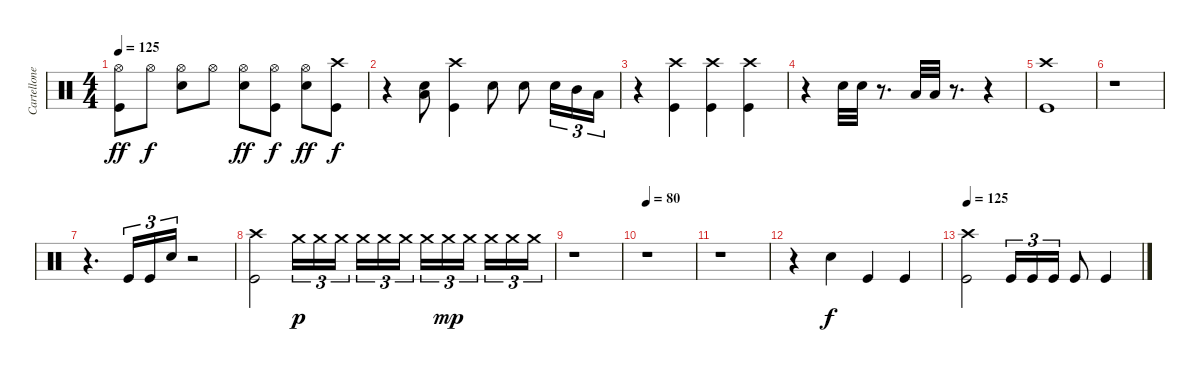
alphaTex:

\track ("Cartellone" "Cartellone") {instrument percussion}
\staff {score}
\articulation defaults
\ts (4 4)
\tempo 125
\clef neutral
\ks c
("Hi-Hat (open)" "Kick (hit)").8{dy ff} "Hi-Hat (open)".8{dy f} ("Hi-Hat (open)" "Snare (hit) 2").8 "Hi-Hat (open)".8 ("Hi-Hat (open)" "Snare (hit) 2").8{dy ff} ("Hi-Hat (open)" "Kick (hit)").8{dy f} ("Hi-Hat (open)" "Snare (hit) 2").8{dy ff} ("Crash high (hit)" "Kick (hit)").8{dy f} |
r.4 ("Snare (hit) 2" "Low Tom (hit)").8 ("Crash high (hit)" "Kick (hit)").4 "Snare (hit) 2".8 "Snare (hit) 2".8 "Snare (hit) 2".16{tu (3 2)} "Mid Tom (hit)".16{tu (3 2)} "Low Tom (hit)".16{tu (3 2)} |
r.4 ("Crash high (hit)" "Kick (hit)").4 ("Crash high (hit)" "Kick (hit)").4 ("Crash high (hit)" "Kick (hit)").4 |
r.4 "Snare (hit) 2".32 "Snare (hit) 2".32 r.8{d} "Low Tom (hit)".32 "Low Tom (hit)".32 r.8{d} r.4 |
("Crash high (hit)" "Kick (hit)").1 |
r.1 |
r.4{d} "Kick (hit)".16{tu (3 2)} "Kick (hit)".16{tu (3 2)} "Snare (hit) 2".16{tu (3 2)} r.2 |
("Crash high (hit)" "Kick (hit)").2 "Crash medium (hit)".16{tu (3 2) dy p} "Crash medium (hit)".16{tu (3 2)} "Crash medium (hit)".16{tu (3 2)} "Crash medium (hit)".16{tu (3 2)} "Crash medium (hit)".16{tu (3 2)} "Crash medium (hit)".16{tu (3 2)} "Crash medium (hit)".16{tu (3 2)} "Crash medium (hit)".16{tu (3 2) dy mp} "Crash medium (hit)".16{tu (3 2)} "Crash medium (hit)".16{tu (3 2)} "Crash medium (hit)".16{tu (3 2)} "Crash medium (hit)".16{tu (3 2)} |
r.1 |
\tempo 80
r.1 |
r.1 |
r.4 "Snare (hit) 2".4{dy f} "Kick (hit)".4 "Kick (hit)".4 |
\tempo 125
("Crash high (hit)" "Kick (hit)").2 "Kick (hit)".16{tu (3 2)} "Kick (hit)".16{tu (3 2)} "Kick (hit)".16{tu (3 2)} "Kick (hit)".8 "Kick (hit)".4
